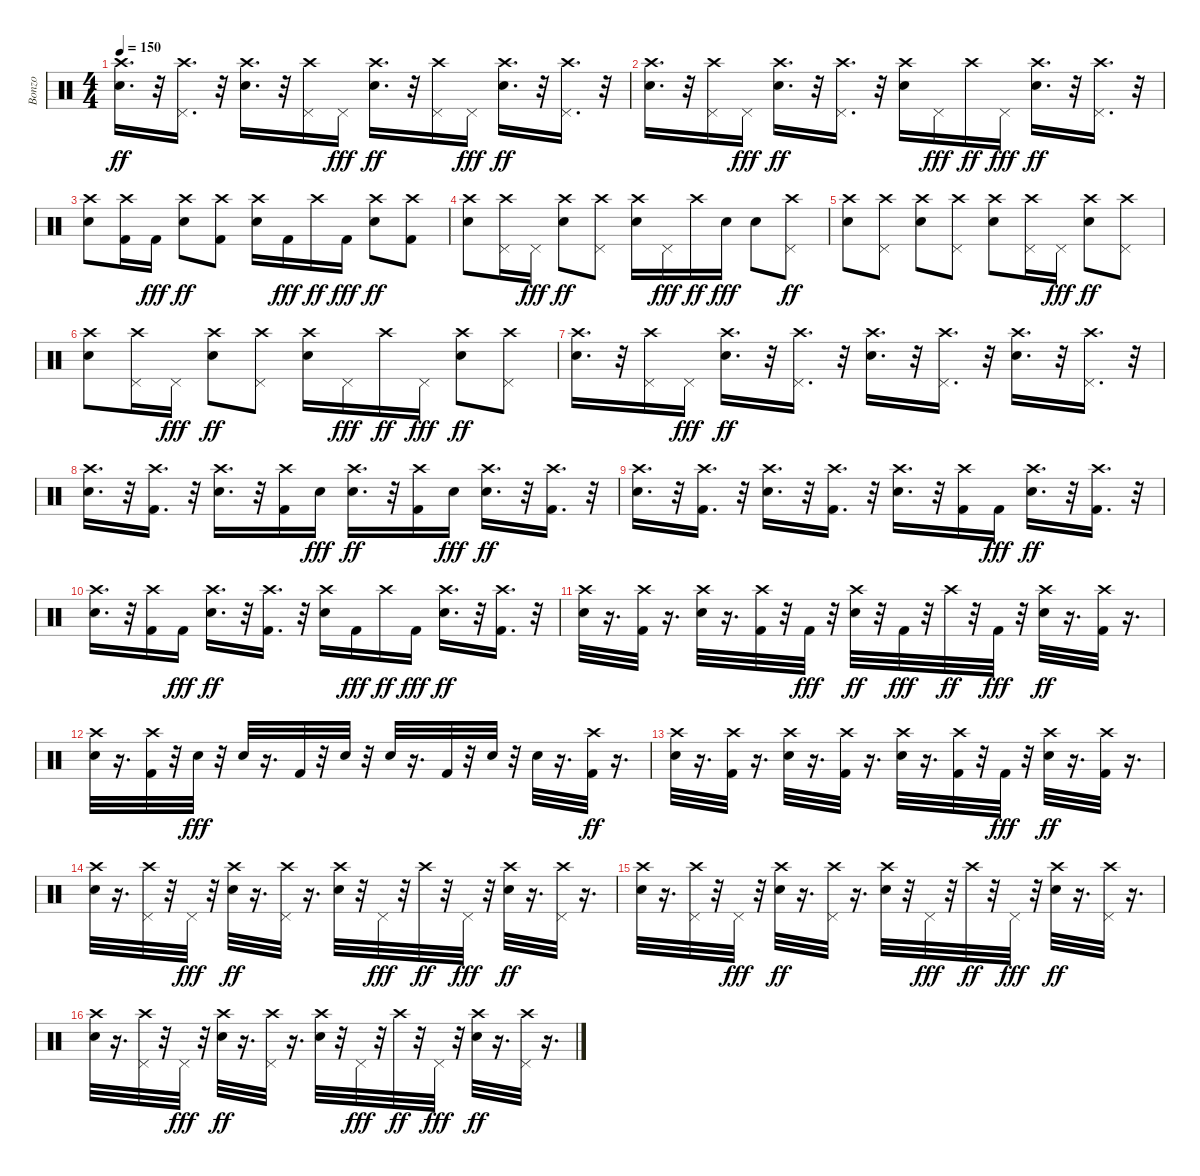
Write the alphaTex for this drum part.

\track ("Bonzo" "Bonzo") {instrument percussion}
\staff {score}
\articulation defaults
\ts (4 4)
\tempo 150
\clef neutral
\ks c
("Snare (hit) 2" "Crash high (hit)").16{d dy ff} r.32 ("Pedal Hi-Hat (hit)" "Crash high (hit)").16{d} r.32 ("Snare (hit) 2" "Crash high (hit)").16{d} r.32 ("Pedal Hi-Hat (hit)" "Crash high (hit)").16 "Pedal Hi-Hat (hit)".16{dy fff} ("Snare (hit) 2" "Crash high (hit)").16{d dy ff} r.32 ("Pedal Hi-Hat (hit)" "Crash high (hit)").16 "Pedal Hi-Hat (hit)".16{dy fff} ("Snare (hit) 2" "Crash high (hit)").16{d dy ff} r.32 ("Pedal Hi-Hat (hit)" "Crash high (hit)").16{d} r.32 |
("Snare (hit) 2" "Crash high (hit)").16{d} r.32 ("Pedal Hi-Hat (hit)" "Crash high (hit)").16 "Pedal Hi-Hat (hit)".16{dy fff} ("Snare (hit) 2" "Crash high (hit)").16{d dy ff} r.32 ("Pedal Hi-Hat (hit)" "Crash high (hit)").16{d} r.32 ("Snare (hit) 2" "Crash high (hit)").16 "Pedal Hi-Hat (hit)".16{dy fff} "Crash high (hit)".16{dy ff} "Pedal Hi-Hat (hit)".16{dy fff} ("Snare (hit) 2" "Crash high (hit)").16{d dy ff} r.32 ("Pedal Hi-Hat (hit)" "Crash high (hit)").16{d} r.32 |
("Snare (hit) 2" "Crash high (hit)").8 ("Kick (hit) 2" "Crash high (hit)").16 "Kick (hit) 2".16{dy fff} ("Snare (hit) 2" "Crash high (hit)").8{dy ff} ("Kick (hit) 2" "Crash high (hit)").8 ("Snare (hit) 2" "Crash high (hit)").16 "Kick (hit) 2".16{dy fff} "Crash high (hit)".16{dy ff} "Kick (hit) 2".16{dy fff} ("Snare (hit) 2" "Crash high (hit)").8{dy ff} ("Kick (hit) 2" "Crash high (hit)").8 |
("Snare (hit) 2" "Crash high (hit)").8 ("Pedal Hi-Hat (hit)" "Crash high (hit)").16 "Pedal Hi-Hat (hit)".16{dy fff} ("Snare (hit) 2" "Crash high (hit)").8{dy ff} ("Pedal Hi-Hat (hit)" "Crash high (hit)").8 ("Snare (hit) 2" "Crash high (hit)").16 "Pedal Hi-Hat (hit)".16{dy fff} "Crash high (hit)".16{dy ff} "Snare (hit) 2".16{dy fff} "Snare (hit) 2".8 ("Pedal Hi-Hat (hit)" "Crash high (hit)").8{dy ff} |
("Snare (hit) 2" "Crash high (hit)").8 ("Pedal Hi-Hat (hit)" "Crash high (hit)").8 ("Snare (hit) 2" "Crash high (hit)").8 ("Pedal Hi-Hat (hit)" "Crash high (hit)").8 ("Snare (hit) 2" "Crash high (hit)").8 ("Pedal Hi-Hat (hit)" "Crash high (hit)").16 "Pedal Hi-Hat (hit)".16{dy fff} ("Snare (hit) 2" "Crash high (hit)").8{dy ff} ("Pedal Hi-Hat (hit)" "Crash high (hit)").8 |
("Snare (hit) 2" "Crash high (hit)").8 ("Pedal Hi-Hat (hit)" "Crash high (hit)").16 "Pedal Hi-Hat (hit)".16{dy fff} ("Snare (hit) 2" "Crash high (hit)").8{dy ff} ("Pedal Hi-Hat (hit)" "Crash high (hit)").8 ("Snare (hit) 2" "Crash high (hit)").16 "Pedal Hi-Hat (hit)".16{dy fff} "Crash high (hit)".16{dy ff} "Pedal Hi-Hat (hit)".16{dy fff} ("Snare (hit) 2" "Crash high (hit)").8{dy ff} ("Pedal Hi-Hat (hit)" "Crash high (hit)").8 |
("Snare (hit) 2" "Crash high (hit)").16{d} r.32 ("Pedal Hi-Hat (hit)" "Crash high (hit)").16 "Pedal Hi-Hat (hit)".16{dy fff} ("Snare (hit) 2" "Crash high (hit)").16{d dy ff} r.32 ("Pedal Hi-Hat (hit)" "Crash high (hit)").16{d} r.32 ("Snare (hit) 2" "Crash high (hit)").16{d} r.32 ("Pedal Hi-Hat (hit)" "Crash high (hit)").16{d} r.32 ("Snare (hit) 2" "Crash high (hit)").16{d} r.32 ("Pedal Hi-Hat (hit)" "Crash high (hit)").16{d} r.32 |
("Snare (hit) 2" "Crash high (hit)").16{d} r.32 ("Kick (hit) 2" "Crash high (hit)").16{d} r.32 ("Snare (hit) 2" "Crash high (hit)").16{d} r.32 ("Kick (hit) 2" "Crash high (hit)").16 "Snare (hit) 2".16{dy fff} ("Snare (hit) 2" "Crash high (hit)").16{d dy ff} r.32 ("Kick (hit) 2" "Crash high (hit)").16 "Snare (hit) 2".16{dy fff} ("Snare (hit) 2" "Crash high (hit)").16{d dy ff} r.32 ("Kick (hit) 2" "Crash high (hit)").16{d} r.32 |
("Snare (hit) 2" "Crash high (hit)").16{d} r.32 ("Kick (hit) 2" "Crash high (hit)").16{d} r.32 ("Snare (hit) 2" "Crash high (hit)").16{d} r.32 ("Kick (hit) 2" "Crash high (hit)").16{d} r.32 ("Snare (hit) 2" "Crash high (hit)").16{d} r.32 ("Kick (hit) 2" "Crash high (hit)").16 "Kick (hit) 2".16{dy fff} ("Snare (hit) 2" "Crash high (hit)").16{d dy ff} r.32 ("Kick (hit) 2" "Crash high (hit)").16{d} r.32 |
("Snare (hit) 2" "Crash high (hit)").16{d} r.32 ("Kick (hit) 2" "Crash high (hit)").16 "Kick (hit) 2".16{dy fff} ("Snare (hit) 2" "Crash high (hit)").16{d dy ff} r.32 ("Kick (hit) 2" "Crash high (hit)").16{d} r.32 ("Snare (hit) 2" "Crash high (hit)").16 "Kick (hit) 2".16{dy fff} "Crash high (hit)".16{dy ff} "Kick (hit) 2".16{dy fff} ("Snare (hit) 2" "Crash high (hit)").16{d dy ff} r.32 ("Kick (hit) 2" "Crash high (hit)").16{d} r.32 |
("Snare (hit) 2" "Crash high (hit)").32 r.16{d} ("Kick (hit) 2" "Crash high (hit)").32 r.16{d} ("Snare (hit) 2" "Crash high (hit)").32 r.16{d} ("Kick (hit) 2" "Crash high (hit)").32 r.32 "Kick (hit) 2".32{dy fff} r.32 ("Snare (hit) 2" "Crash high (hit)").32{dy ff} r.32 "Kick (hit) 2".32{dy fff} r.32 "Crash high (hit)".32{dy ff} r.32 "Kick (hit) 2".32{dy fff} r.32 ("Snare (hit) 2" "Crash high (hit)").32{dy ff} r.16{d} ("Kick (hit) 2" "Crash high (hit)").32 r.16{d} |
("Snare (hit) 2" "Crash high (hit)").32 r.16{d} ("Kick (hit) 2" "Crash high (hit)").32 r.32 "Snare (hit) 2".32{dy fff} r.32 "Snare (hit) 2".32 r.16{d} "Kick (hit) 2".32 r.32 "Snare (hit) 2".32 r.32 "Snare (hit) 2".32 r.16{d} "Kick (hit) 2".32 r.32 "Snare (hit) 2".32 r.32 "Snare (hit) 2".32 r.16{d} ("Kick (hit) 2" "Crash high (hit)").32{dy ff} r.16{d} |
("Snare (hit) 2" "Crash high (hit)").32 r.16{d} ("Kick (hit) 2" "Crash high (hit)").32 r.16{d} ("Snare (hit) 2" "Crash high (hit)").32 r.16{d} ("Kick (hit) 2" "Crash high (hit)").32 r.16{d} ("Snare (hit) 2" "Crash high (hit)").32 r.16{d} ("Kick (hit) 2" "Crash high (hit)").32 r.32 "Kick (hit) 2".32{dy fff} r.32 ("Snare (hit) 2" "Crash high (hit)").32{dy ff} r.16{d} ("Kick (hit) 2" "Crash high (hit)").32 r.16{d} |
("Snare (hit) 2" "Crash high (hit)").32 r.16{d} ("Pedal Hi-Hat (hit)" "Crash high (hit)").32 r.32 "Pedal Hi-Hat (hit)".32{dy fff} r.32 ("Snare (hit) 2" "Crash high (hit)").32{dy ff} r.16{d} ("Pedal Hi-Hat (hit)" "Crash high (hit)").32 r.16{d} ("Snare (hit) 2" "Crash high (hit)").32 r.32 "Pedal Hi-Hat (hit)".32{dy fff} r.32 "Crash high (hit)".32{dy ff} r.32 "Pedal Hi-Hat (hit)".32{dy fff} r.32 ("Snare (hit) 2" "Crash high (hit)").32{dy ff} r.16{d} ("Pedal Hi-Hat (hit)" "Crash high (hit)").32 r.16{d} |
("Snare (hit) 2" "Crash high (hit)").32 r.16{d} ("Pedal Hi-Hat (hit)" "Crash high (hit)").32 r.32 "Pedal Hi-Hat (hit)".32{dy fff} r.32 ("Snare (hit) 2" "Crash high (hit)").32{dy ff} r.16{d} ("Pedal Hi-Hat (hit)" "Crash high (hit)").32 r.16{d} ("Snare (hit) 2" "Crash high (hit)").32 r.32 "Pedal Hi-Hat (hit)".32{dy fff} r.32 "Crash high (hit)".32{dy ff} r.32 "Pedal Hi-Hat (hit)".32{dy fff} r.32 ("Snare (hit) 2" "Crash high (hit)").32{dy ff} r.16{d} ("Pedal Hi-Hat (hit)" "Crash high (hit)").32 r.16{d} |
("Snare (hit) 2" "Crash high (hit)").32 r.16{d} ("Pedal Hi-Hat (hit)" "Crash high (hit)").32 r.32 "Pedal Hi-Hat (hit)".32{dy fff} r.32 ("Snare (hit) 2" "Crash high (hit)").32{dy ff} r.16{d} ("Pedal Hi-Hat (hit)" "Crash high (hit)").32 r.16{d} ("Snare (hit) 2" "Crash high (hit)").32 r.32 "Pedal Hi-Hat (hit)".32{dy fff} r.32 "Crash high (hit)".32{dy ff} r.32 "Pedal Hi-Hat (hit)".32{dy fff} r.32 ("Snare (hit) 2" "Crash high (hit)").32{dy ff} r.16{d} ("Pedal Hi-Hat (hit)" "Crash high (hit)").32 r.16{d}
